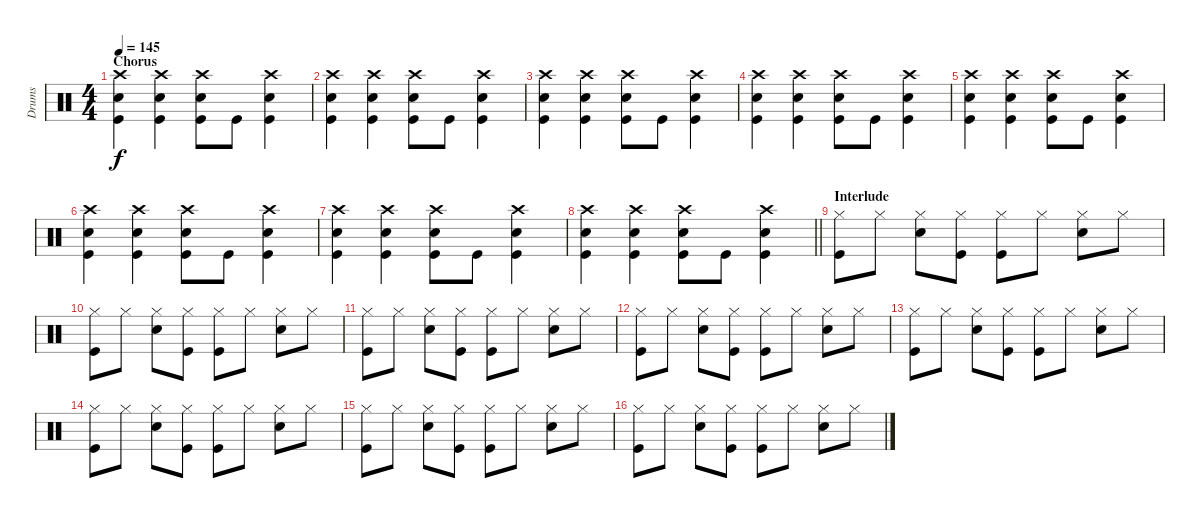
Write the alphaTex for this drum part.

\track ("Drums" "Drums") {instrument percussion}
\staff {score}
\articulation defaults
\ts (4 4)
\section ("" "Chorus")
\tempo 145
\clef neutral
\ks c
("Crash high (hit)" "Snare (hit) 2" "Kick (hit)").4{dy f} ("Crash high (hit)" "Snare (hit) 2" "Kick (hit)").4 ("Crash high (hit)" "Snare (hit) 2" "Kick (hit)").8 "Kick (hit)".8 ("Crash high (hit)" "Snare (hit) 2" "Kick (hit)").4 |
("Crash high (hit)" "Snare (hit) 2" "Kick (hit)").4 ("Crash high (hit)" "Snare (hit) 2" "Kick (hit)").4 ("Crash high (hit)" "Snare (hit) 2" "Kick (hit)").8 "Kick (hit)".8 ("Crash high (hit)" "Snare (hit) 2" "Kick (hit)").4 |
("Crash high (hit)" "Snare (hit) 2" "Kick (hit)").4 ("Crash high (hit)" "Snare (hit) 2" "Kick (hit)").4 ("Crash high (hit)" "Snare (hit) 2" "Kick (hit)").8 "Kick (hit)".8 ("Crash high (hit)" "Snare (hit) 2" "Kick (hit)").4 |
("Crash high (hit)" "Snare (hit) 2" "Kick (hit)").4 ("Crash high (hit)" "Snare (hit) 2" "Kick (hit)").4 ("Crash high (hit)" "Snare (hit) 2" "Kick (hit)").8 "Kick (hit)".8 ("Crash high (hit)" "Snare (hit) 2" "Kick (hit)").4 |
("Crash high (hit)" "Snare (hit) 2" "Kick (hit)").4 ("Crash high (hit)" "Snare (hit) 2" "Kick (hit)").4 ("Crash high (hit)" "Snare (hit) 2" "Kick (hit)").8 "Kick (hit)".8 ("Crash high (hit)" "Snare (hit) 2" "Kick (hit)").4 |
("Crash high (hit)" "Snare (hit) 2" "Kick (hit)").4 ("Crash high (hit)" "Snare (hit) 2" "Kick (hit)").4 ("Crash high (hit)" "Snare (hit) 2" "Kick (hit)").8 "Kick (hit)".8 ("Crash high (hit)" "Snare (hit) 2" "Kick (hit)").4 |
("Crash high (hit)" "Snare (hit) 2" "Kick (hit)").4 ("Crash high (hit)" "Snare (hit) 2" "Kick (hit)").4 ("Crash high (hit)" "Snare (hit) 2" "Kick (hit)").8 "Kick (hit)".8 ("Crash high (hit)" "Snare (hit) 2" "Kick (hit)").4 |
\barLineRight lightlight
("Crash high (hit)" "Snare (hit) 2" "Kick (hit)").4 ("Crash high (hit)" "Snare (hit) 2" "Kick (hit)").4 ("Crash high (hit)" "Snare (hit) 2" "Kick (hit)").8 "Kick (hit)".8 ("Crash high (hit)" "Snare (hit) 2" "Kick (hit)").4 |
\section ("" "Interlude")
("Hi-Hat (closed)" "Kick (hit)").8 "Hi-Hat (closed)".8 ("Hi-Hat (closed)" "Snare (hit) 2").8 ("Hi-Hat (closed)" "Kick (hit)").8 ("Hi-Hat (closed)" "Kick (hit)").8 "Hi-Hat (closed)".8 ("Hi-Hat (closed)" "Snare (hit) 2").8 "Hi-Hat (closed)".8 |
("Hi-Hat (closed)" "Kick (hit)").8 "Hi-Hat (closed)".8 ("Hi-Hat (closed)" "Snare (hit) 2").8 ("Hi-Hat (closed)" "Kick (hit)").8 ("Hi-Hat (closed)" "Kick (hit)").8 "Hi-Hat (closed)".8 ("Hi-Hat (closed)" "Snare (hit) 2").8 "Hi-Hat (closed)".8 |
("Hi-Hat (closed)" "Kick (hit)").8 "Hi-Hat (closed)".8 ("Hi-Hat (closed)" "Snare (hit) 2").8 ("Hi-Hat (closed)" "Kick (hit)").8 ("Hi-Hat (closed)" "Kick (hit)").8 "Hi-Hat (closed)".8 ("Hi-Hat (closed)" "Snare (hit) 2").8 "Hi-Hat (closed)".8 |
("Hi-Hat (closed)" "Kick (hit)").8 "Hi-Hat (closed)".8 ("Hi-Hat (closed)" "Snare (hit) 2").8 ("Hi-Hat (closed)" "Kick (hit)").8 ("Hi-Hat (closed)" "Kick (hit)").8 "Hi-Hat (closed)".8 ("Hi-Hat (closed)" "Snare (hit) 2").8 "Hi-Hat (closed)".8 |
("Hi-Hat (closed)" "Kick (hit)").8 "Hi-Hat (closed)".8 ("Hi-Hat (closed)" "Snare (hit) 2").8 ("Hi-Hat (closed)" "Kick (hit)").8 ("Hi-Hat (closed)" "Kick (hit)").8 "Hi-Hat (closed)".8 ("Hi-Hat (closed)" "Snare (hit) 2").8 "Hi-Hat (closed)".8 |
("Hi-Hat (closed)" "Kick (hit)").8 "Hi-Hat (closed)".8 ("Hi-Hat (closed)" "Snare (hit) 2").8 ("Hi-Hat (closed)" "Kick (hit)").8 ("Hi-Hat (closed)" "Kick (hit)").8 "Hi-Hat (closed)".8 ("Hi-Hat (closed)" "Snare (hit) 2").8 "Hi-Hat (closed)".8 |
("Hi-Hat (closed)" "Kick (hit)").8 "Hi-Hat (closed)".8 ("Hi-Hat (closed)" "Snare (hit) 2").8 ("Hi-Hat (closed)" "Kick (hit)").8 ("Hi-Hat (closed)" "Kick (hit)").8 "Hi-Hat (closed)".8 ("Hi-Hat (closed)" "Snare (hit) 2").8 "Hi-Hat (closed)".8 |
("Hi-Hat (closed)" "Kick (hit)").8 "Hi-Hat (closed)".8 ("Hi-Hat (closed)" "Snare (hit) 2").8 ("Hi-Hat (closed)" "Kick (hit)").8 ("Hi-Hat (closed)" "Kick (hit)").8 "Hi-Hat (closed)".8 ("Hi-Hat (closed)" "Snare (hit) 2").8 "Hi-Hat (closed)".8
